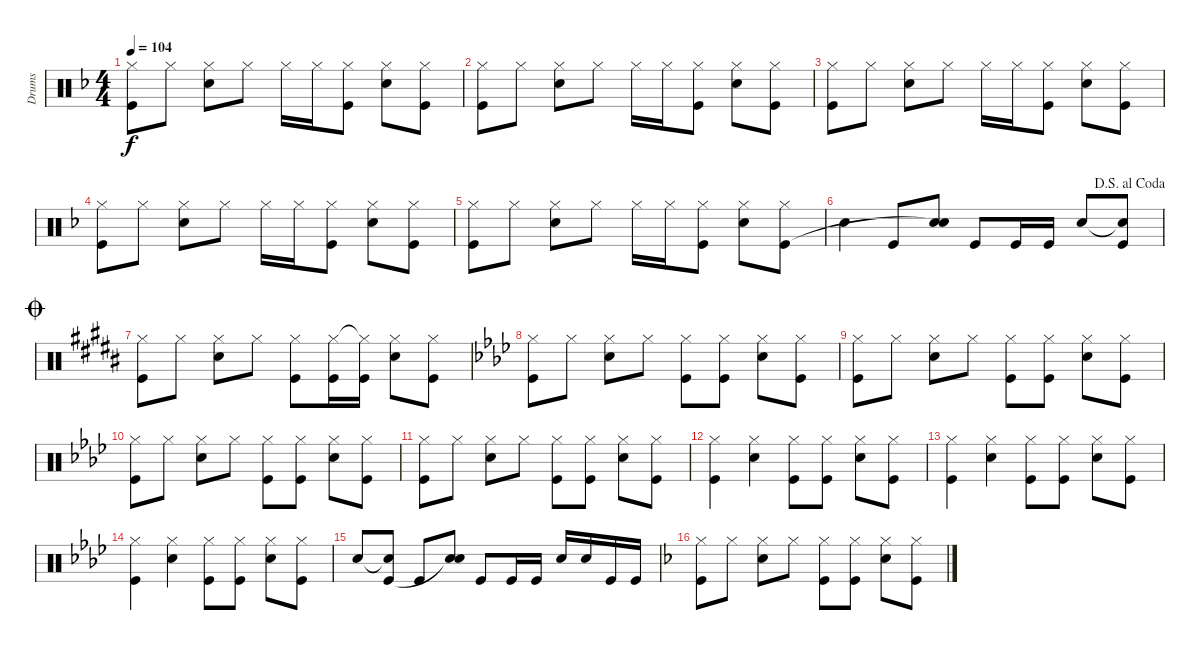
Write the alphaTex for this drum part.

\track ("Drums" "Drums") {instrument percussion}
\staff {score}
\articulation defaults
\ts (4 4)
\tempo 104
\clef neutral
\ks f
("Hi-Hat (closed)" "Kick (hit)").8{dy f} "Hi-Hat (closed)".8 ("Hi-Hat (closed)" "Snare (hit) 2").8 "Hi-Hat (closed)".8 "Hi-Hat (closed)".16 "Hi-Hat (closed)".16 ("Hi-Hat (closed)" "Kick (hit)").8 ("Hi-Hat (closed)" "Snare (hit) 2").8 ("Hi-Hat (closed)" "Kick (hit)").8 |
("Hi-Hat (closed)" "Kick (hit)").8 "Hi-Hat (closed)".8 ("Hi-Hat (closed)" "Snare (hit) 2").8 "Hi-Hat (closed)".8 "Hi-Hat (closed)".16 "Hi-Hat (closed)".16 ("Hi-Hat (closed)" "Kick (hit)").8 ("Hi-Hat (closed)" "Snare (hit) 2").8 ("Hi-Hat (closed)" "Kick (hit)").8 |
("Hi-Hat (closed)" "Kick (hit)").8 "Hi-Hat (closed)".8 ("Hi-Hat (closed)" "Snare (hit) 2").8 "Hi-Hat (closed)".8 "Hi-Hat (closed)".16 "Hi-Hat (closed)".16 ("Hi-Hat (closed)" "Kick (hit)").8 ("Hi-Hat (closed)" "Snare (hit) 2").8 ("Hi-Hat (closed)" "Kick (hit)").8 |
("Hi-Hat (closed)" "Kick (hit)").8 "Hi-Hat (closed)".8 ("Hi-Hat (closed)" "Snare (hit) 2").8 "Hi-Hat (closed)".8 "Hi-Hat (closed)".16 "Hi-Hat (closed)".16 ("Hi-Hat (closed)" "Kick (hit)").8 ("Hi-Hat (closed)" "Snare (hit) 2").8 ("Hi-Hat (closed)" "Kick (hit)").8 |
("Hi-Hat (closed)" "Kick (hit)").8 "Hi-Hat (closed)".8 ("Hi-Hat (closed)" "Snare (hit) 2").8 "Hi-Hat (closed)".8 "Hi-Hat (closed)".16 "Hi-Hat (closed)".16 ("Hi-Hat (closed)" "Kick (hit)").8 ("Hi-Hat (closed)" "Snare (hit) 2").8 ("Hi-Hat (closed)" "Kick (hit)").8 |
\jump dalsegnoalcoda "Snare (hit) 2".4 "Kick (hit)".8
("Snare (hit) 2" "Snare (hit)"{t}).8 "Kick (hit)".8 "Kick (hit)".16 "Kick (hit)".16 "Snare (hit) 2".8 ("Snare (hit)"{t} "Kick (hit)").8 |
\jump coda
\ks b
("Hi-Hat (closed)" "Kick (hit)").8 "Hi-Hat (closed)".8 ("Hi-Hat (closed)" "Snare (hit) 2").8 "Hi-Hat (closed)".8 ("Hi-Hat (closed)" "Kick (hit)").8 ("Hi-Hat (closed)" "Kick (hit)").16 ("Hi-Hat (closed)"{t} "Kick (hit)").16 ("Hi-Hat (closed)" "Snare (hit) 2").8 ("Hi-Hat (closed)" "Kick (hit)").8 |
\ks ab
("Hi-Hat (closed)" "Kick (hit)").8 "Hi-Hat (closed)".8 ("Hi-Hat (closed)" "Snare (hit) 2").8 "Hi-Hat (closed)".8 ("Hi-Hat (closed)" "Kick (hit)").8 ("Hi-Hat (closed)" "Kick (hit)").8 ("Hi-Hat (closed)" "Snare (hit) 2").8 ("Hi-Hat (closed)" "Kick (hit)").8 |
("Hi-Hat (closed)" "Kick (hit)").8 "Hi-Hat (closed)".8 ("Hi-Hat (closed)" "Snare (hit) 2").8 "Hi-Hat (closed)".8 ("Hi-Hat (closed)" "Kick (hit)").8 ("Hi-Hat (closed)" "Kick (hit)").8 ("Hi-Hat (closed)" "Snare (hit) 2").8 ("Hi-Hat (closed)" "Kick (hit)").8 |
("Hi-Hat (closed)" "Kick (hit)").8 "Hi-Hat (closed)".8 ("Hi-Hat (closed)" "Snare (hit) 2").8 "Hi-Hat (closed)".8 ("Hi-Hat (closed)" "Kick (hit)").8 ("Hi-Hat (closed)" "Kick (hit)").8 ("Hi-Hat (closed)" "Snare (hit) 2").8 ("Hi-Hat (closed)" "Kick (hit)").8 |
("Hi-Hat (closed)" "Kick (hit)").8 "Hi-Hat (closed)".8 ("Hi-Hat (closed)" "Snare (hit) 2").8 "Hi-Hat (closed)".8 ("Hi-Hat (closed)" "Kick (hit)").8 ("Hi-Hat (closed)" "Kick (hit)").8 ("Hi-Hat (closed)" "Snare (hit) 2").8 ("Hi-Hat (closed)" "Kick (hit)").8 |
("Hi-Hat (closed)" "Kick (hit)").4 ("Hi-Hat (closed)" "Snare (hit) 2").4 ("Hi-Hat (closed)" "Kick (hit)").8 ("Hi-Hat (closed)" "Kick (hit)").8 ("Hi-Hat (closed)" "Snare (hit) 2").8 ("Hi-Hat (closed)" "Kick (hit)").8 |
("Hi-Hat (closed)" "Kick (hit)").4 ("Hi-Hat (closed)" "Snare (hit) 2").4 ("Hi-Hat (closed)" "Kick (hit)").8 ("Hi-Hat (closed)" "Kick (hit)").8 ("Hi-Hat (closed)" "Snare (hit) 2").8 ("Hi-Hat (closed)" "Kick (hit)").8 |
("Hi-Hat (closed)" "Kick (hit)").4 ("Hi-Hat (closed)" "Snare (hit) 2").4 ("Hi-Hat (closed)" "Kick (hit)").8 ("Hi-Hat (closed)" "Kick (hit)").8 ("Hi-Hat (closed)" "Snare (hit) 2").8 ("Hi-Hat (closed)" "Kick (hit)").8 |
"Snare (hit) 2".8 ("Snare (hit)"{t} "Kick (hit)").8 "Kick (hit)".8 ("Snare (hit) 2" "Snare (hit)"{t}).8 "Kick (hit)".8 "Kick (hit)".16 "Kick (hit)".16 "Snare (hit) 2".16 "Snare (hit) 2".16 "Kick (hit)".16 "Kick (hit)".16 |
\ks f
("Hi-Hat (closed)" "Kick (hit)").8 "Hi-Hat (closed)".8 ("Hi-Hat (closed)" "Snare (hit) 2").8 "Hi-Hat (closed)".8 ("Hi-Hat (closed)" "Kick (hit)").8 ("Hi-Hat (closed)" "Kick (hit)").8 ("Hi-Hat (closed)" "Snare (hit) 2").8 ("Hi-Hat (closed)" "Kick (hit)").8
